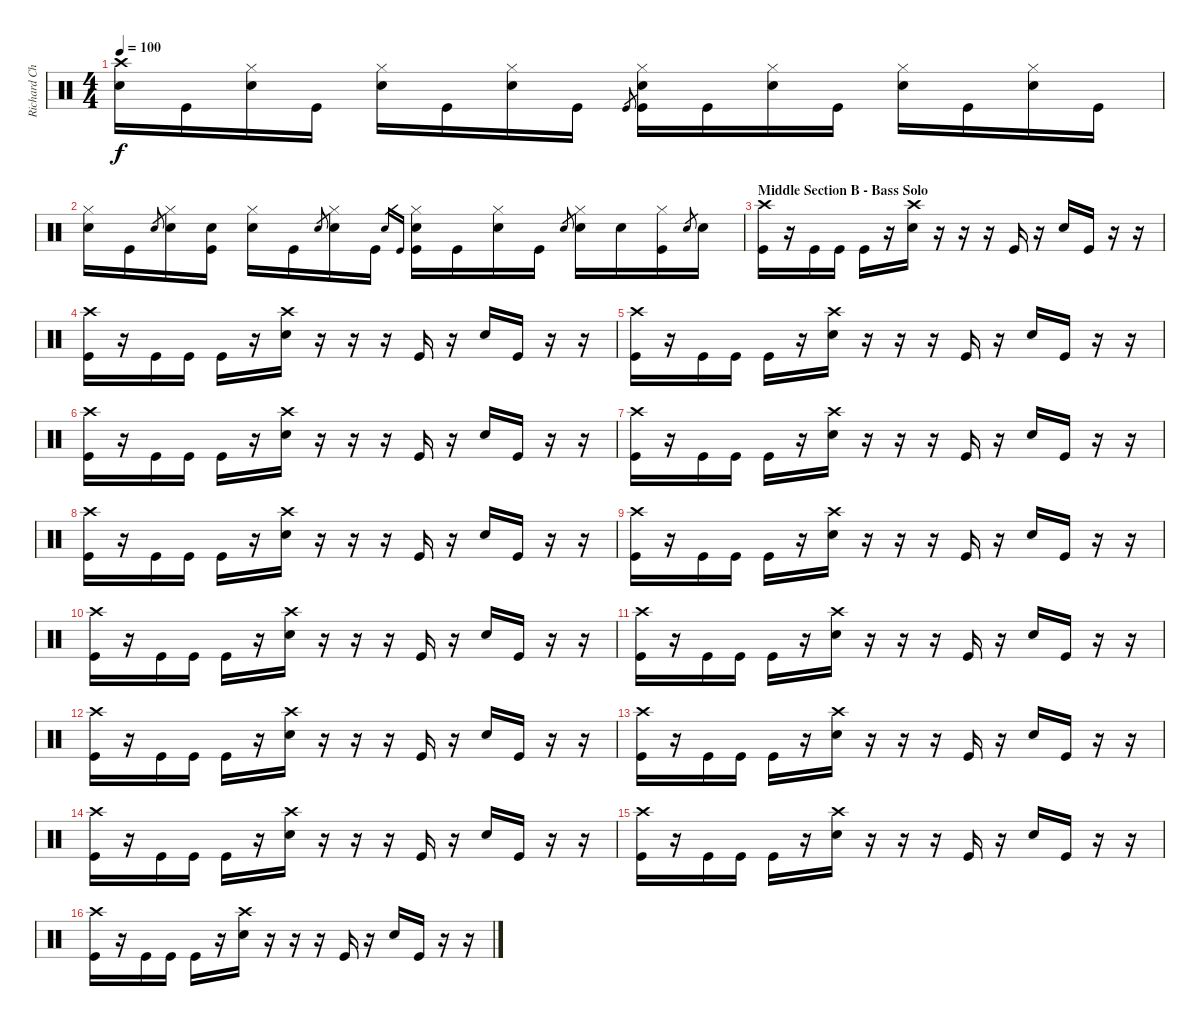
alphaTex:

\track ("Richard Chadwick - Drums" "Richard Ch") {instrument percussion}
\staff {score}
\articulation defaults
\ts (4 4)
\tempo 100
\clef neutral
\ks c
("Crash high (hit)" "Snare (hit) 2").16{dy f} "Kick (hit)".16 ("Hi-Hat (closed)" "Snare (hit) 2").16 "Kick (hit)".16 ("Hi-Hat (closed)" "Snare (hit) 2").16 "Kick (hit)".16 ("Hi-Hat (closed)" "Snare (hit) 2").16 "Kick (hit)".16 "Kick (hit)".8{gr} ("Hi-Hat (closed)" "Snare (hit) 2" "Kick (hit)").16 "Kick (hit)".16 ("Hi-Hat (closed)" "Snare (hit) 2").16 "Kick (hit)".16 ("Hi-Hat (closed)" "Snare (hit) 2").16 "Kick (hit)".16 ("Hi-Hat (closed)" "Snare (hit) 2").16 "Kick (hit)".16 |
("Hi-Hat (closed)" "Snare (hit) 2").16 "Kick (hit)".16 "Snare (hit) 2".8{gr} ("Hi-Hat (closed)" "Snare (hit) 2").16 ("Snare (hit) 2" "Kick (hit)").16 ("Hi-Hat (closed)" "Snare (hit) 2").16 "Kick (hit)".16 "Snare (hit) 2".8{gr} ("Hi-Hat (closed)" "Snare (hit) 2").16 "Kick (hit)".16 "Snare (hit) 2".16{gr} "Kick (hit)".16{gr} ("Hi-Hat (closed)" "Snare (hit) 2" "Kick (hit)").16 "Kick (hit)".16 ("Hi-Hat (closed)" "Snare (hit) 2").16 "Kick (hit)".16 "Snare (hit) 2".8{gr} ("Hi-Hat (closed)" "Snare (hit) 2").16 "Snare (hit) 2".16 ("Hi-Hat (closed)" "Kick (hit)").16 "Snare (hit) 2".8{gr} "Snare (hit) 2".16 |
\section ("" "Middle Section B - Bass Solo")
("Crash high (hit)" "Kick (hit)").16 r.16 "Kick (hit)".16 "Kick (hit)".16 "Kick (hit)".16 r.16 ("Crash high (hit)" "Electric Snare (hit)").16 r.16 r.16 r.16 "Kick (hit)".16 r.16 "Electric Snare (hit)".16 "Kick (hit)".16 r.16 r.16 |
("Crash high (hit)" "Kick (hit)").16 r.16 "Kick (hit)".16 "Kick (hit)".16 "Kick (hit)".16 r.16 ("Crash high (hit)" "Electric Snare (hit)").16 r.16 r.16 r.16 "Kick (hit)".16 r.16 "Electric Snare (hit)".16 "Kick (hit)".16 r.16 r.16 |
("Crash high (hit)" "Kick (hit)").16 r.16 "Kick (hit)".16 "Kick (hit)".16 "Kick (hit)".16 r.16 ("Crash high (hit)" "Electric Snare (hit)").16 r.16 r.16 r.16 "Kick (hit)".16 r.16 "Electric Snare (hit)".16 "Kick (hit)".16 r.16 r.16 |
("Crash high (hit)" "Kick (hit)").16 r.16 "Kick (hit)".16 "Kick (hit)".16 "Kick (hit)".16 r.16 ("Crash high (hit)" "Electric Snare (hit)").16 r.16 r.16 r.16 "Kick (hit)".16 r.16 "Electric Snare (hit)".16 "Kick (hit)".16 r.16 r.16 |
("Crash high (hit)" "Kick (hit)").16 r.16 "Kick (hit)".16 "Kick (hit)".16 "Kick (hit)".16 r.16 ("Crash high (hit)" "Electric Snare (hit)").16 r.16 r.16 r.16 "Kick (hit)".16 r.16 "Electric Snare (hit)".16 "Kick (hit)".16 r.16 r.16 |
("Crash high (hit)" "Kick (hit)").16 r.16 "Kick (hit)".16 "Kick (hit)".16 "Kick (hit)".16 r.16 ("Crash high (hit)" "Electric Snare (hit)").16 r.16 r.16 r.16 "Kick (hit)".16 r.16 "Electric Snare (hit)".16 "Kick (hit)".16 r.16 r.16 |
("Crash high (hit)" "Kick (hit)").16 r.16 "Kick (hit)".16 "Kick (hit)".16 "Kick (hit)".16 r.16 ("Crash high (hit)" "Electric Snare (hit)").16 r.16 r.16 r.16 "Kick (hit)".16 r.16 "Electric Snare (hit)".16 "Kick (hit)".16 r.16 r.16 |
("Crash high (hit)" "Kick (hit)").16 r.16 "Kick (hit)".16 "Kick (hit)".16 "Kick (hit)".16 r.16 ("Crash high (hit)" "Electric Snare (hit)").16 r.16 r.16 r.16 "Kick (hit)".16 r.16 "Electric Snare (hit)".16 "Kick (hit)".16 r.16 r.16 |
("Crash high (hit)" "Kick (hit)").16 r.16 "Kick (hit)".16 "Kick (hit)".16 "Kick (hit)".16 r.16 ("Crash high (hit)" "Electric Snare (hit)").16 r.16 r.16 r.16 "Kick (hit)".16 r.16 "Electric Snare (hit)".16 "Kick (hit)".16 r.16 r.16 |
("Crash high (hit)" "Kick (hit)").16 r.16 "Kick (hit)".16 "Kick (hit)".16 "Kick (hit)".16 r.16 ("Crash high (hit)" "Electric Snare (hit)").16 r.16 r.16 r.16 "Kick (hit)".16 r.16 "Electric Snare (hit)".16 "Kick (hit)".16 r.16 r.16 |
("Crash high (hit)" "Kick (hit)").16 r.16 "Kick (hit)".16 "Kick (hit)".16 "Kick (hit)".16 r.16 ("Crash high (hit)" "Electric Snare (hit)").16 r.16 r.16 r.16 "Kick (hit)".16 r.16 "Electric Snare (hit)".16 "Kick (hit)".16 r.16 r.16 |
("Crash high (hit)" "Kick (hit)").16 r.16 "Kick (hit)".16 "Kick (hit)".16 "Kick (hit)".16 r.16 ("Crash high (hit)" "Electric Snare (hit)").16 r.16 r.16 r.16 "Kick (hit)".16 r.16 "Electric Snare (hit)".16 "Kick (hit)".16 r.16 r.16 |
("Crash high (hit)" "Kick (hit)").16 r.16 "Kick (hit)".16 "Kick (hit)".16 "Kick (hit)".16 r.16 ("Crash high (hit)" "Electric Snare (hit)").16 r.16 r.16 r.16 "Kick (hit)".16 r.16 "Electric Snare (hit)".16 "Kick (hit)".16 r.16 r.16 |
("Crash high (hit)" "Kick (hit)").16 r.16 "Kick (hit)".16 "Kick (hit)".16 "Kick (hit)".16 r.16 ("Crash high (hit)" "Electric Snare (hit)").16 r.16 r.16 r.16 "Kick (hit)".16 r.16 "Electric Snare (hit)".16 "Kick (hit)".16 r.16 r.16
